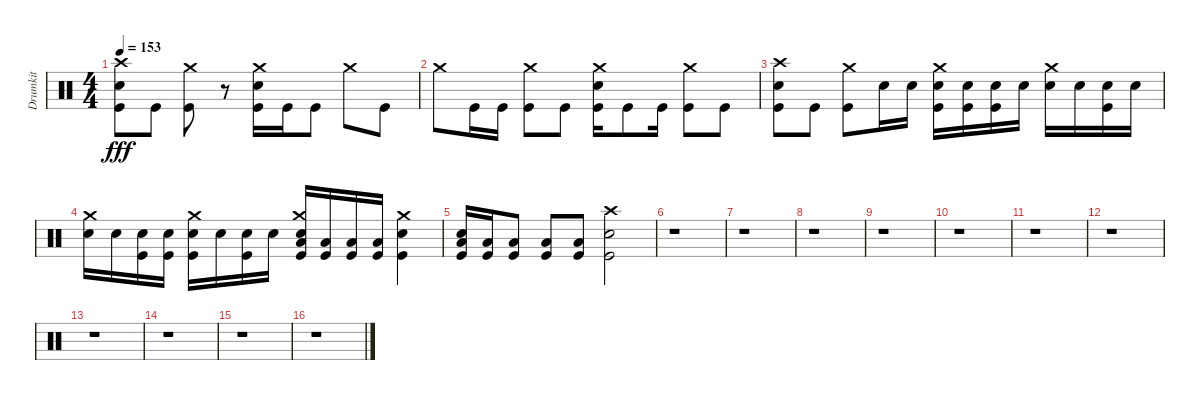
\track ("Drumkit" "Drumkit") {instrument percussion}
\staff {score}
\articulation defaults
\ts (4 4)
\tempo 153
\clef neutral
\ks c
("Crash high (hit)" "Snare (hit) 2" "Kick (hit)").8{dy fff} "Kick (hit)".8 ("Crash medium (hit)" "Kick (hit)").8 r.8 ("Snare (hit) 2" "Crash medium (hit)" "Kick (hit)").16 "Kick (hit)".16 "Kick (hit)".8 "Crash medium (hit)".8 "Kick (hit)".8 |
"Crash medium (hit)".8 "Kick (hit)".16 "Kick (hit)".16 ("Crash medium (hit)" "Kick (hit)").8 "Kick (hit)".8 ("Snare (hit) 2" "Crash medium (hit)" "Kick (hit)").16 "Kick (hit)".8 "Kick (hit)".16 ("Crash medium (hit)" "Kick (hit)").8 "Kick (hit)".8 |
("Crash high (hit)" "Snare (hit) 2" "Kick (hit)").8 "Kick (hit)".8 ("Crash medium (hit)" "Kick (hit)").8 "Snare (hit) 2".16 "Snare (hit) 2".16 ("Crash medium (hit)" "Snare (hit) 2" "Kick (hit)").16 ("Snare (hit) 2" "Kick (hit)").16 ("Snare (hit) 2" "Kick (hit)").16 "Snare (hit) 2".16 ("Crash medium (hit)" "Snare (hit) 2").16 "Snare (hit) 2".16 ("Snare (hit) 2" "Kick (hit)").16 "Snare (hit) 2".16 |
("Crash medium (hit)" "Snare (hit) 2").16 "Snare (hit) 2".16 ("Snare (hit) 2" "Kick (hit)").16 ("Snare (hit) 2" "Kick (hit)").16 ("Crash medium (hit)" "Snare (hit) 2" "Kick (hit)").16 "Snare (hit) 2".16 ("Snare (hit) 2" "Kick (hit)").16 "Snare (hit) 2".16 ("Snare (hit) 2" "Low Floor Tom (hit)" "Crash medium (hit)" "Kick (hit)").16 ("Low Floor Tom (hit)" "Kick (hit)").16 ("Low Floor Tom (hit)" "Kick (hit)").16 ("Low Floor Tom (hit)" "Kick (hit)").16 ("Crash medium (hit)" "Snare (hit) 2" "Kick (hit)").4 |
("Low Floor Tom (hit)" "Snare (hit) 2" "Kick (hit)").16 ("Low Floor Tom (hit)" "Kick (hit)").16 ("Low Floor Tom (hit)" "Kick (hit)").8 ("Low Floor Tom (hit)" "Kick (hit)").8 ("Low Floor Tom (hit)" "Kick (hit)").8 ("Crash high (hit)" "Snare (hit) 2" "Kick (hit)").2 |
r.1 |
r.1 |
r.1 |
r.1 |
r.1 |
r.1 |
r.1 |
r.1 |
r.1 |
r.1 |
r.1
